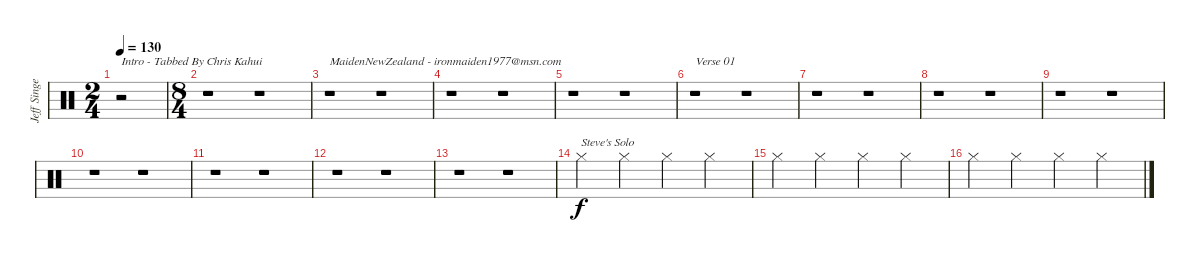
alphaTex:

\track ("Jeff Singer" "Jeff Singe") {instrument percussion}
\staff {score}
\articulation defaults
\ts (2 4)
\tempo 130
\clef neutral
\ks c
r.2{txt "Intro - Tabbed By Chris Kahui" dy f} |
\ts (8 4)
r.1 r.1 |
r.1{txt "MaidenNewZealand - ironmaiden1977@msn.com"} r.1 |
r.1 r.1 |
r.1 r.1 |
r.1{txt "Verse 01"} r.1 |
r.1 r.1 |
r.1 r.1 |
r.1 r.1 |
r.1 r.1 |
r.1 r.1 |
r.1 r.1 |
r.1 r.1 |
"Hi-Hat (closed)".2{txt "Steve's Solo"} "Hi-Hat (closed)".2 "Hi-Hat (closed)".2 "Hi-Hat (closed)".2 |
"Hi-Hat (closed)".2 "Hi-Hat (closed)".2 "Hi-Hat (closed)".2 "Hi-Hat (closed)".2 |
"Hi-Hat (closed)".2 "Hi-Hat (closed)".2 "Hi-Hat (closed)".2 "Hi-Hat (closed)".2
